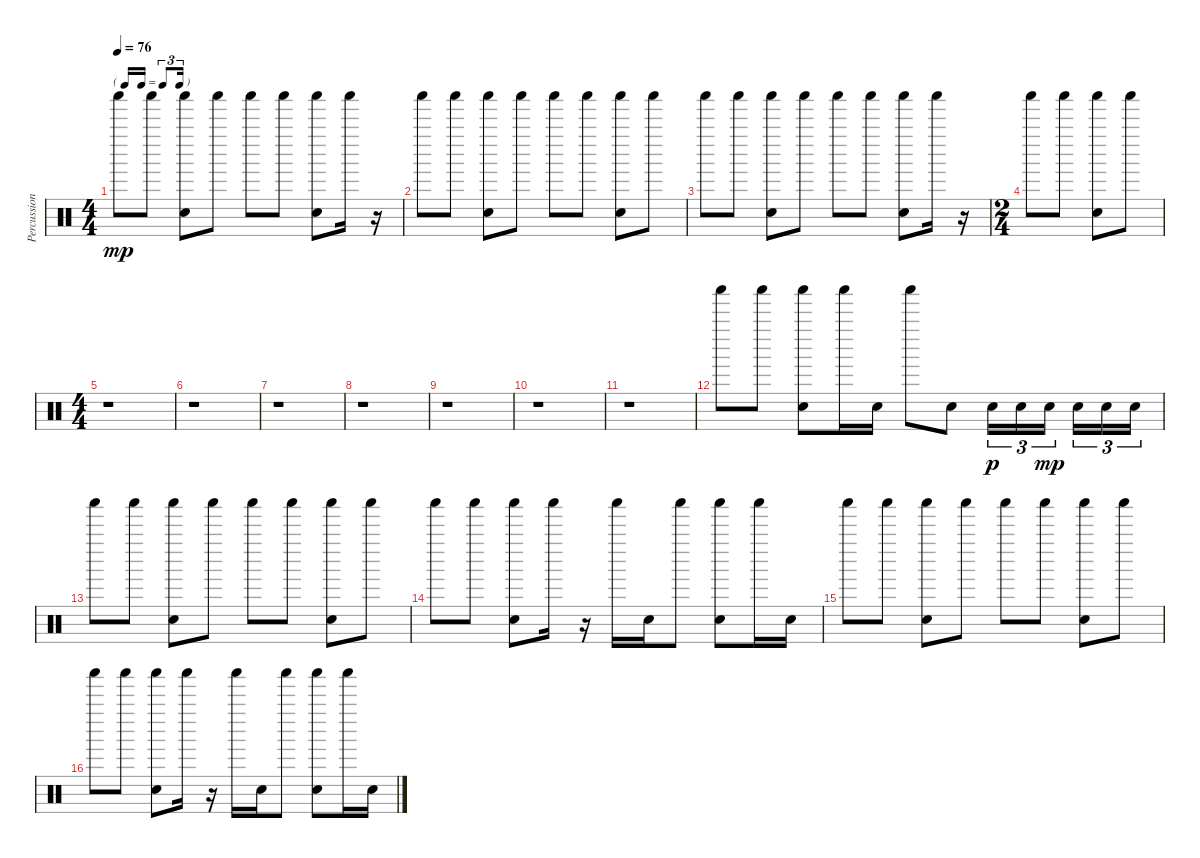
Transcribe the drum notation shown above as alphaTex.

\track ("Percussions" "Percussion") {instrument percussion}
\staff {score}
\articulation defaults
\ts (4 4)
\tf triplet16th
\tempo 76
\clef neutral
\ks c "Shaker (hit)".8{dy mp} "Shaker (hit)".8
("Shaker (hit)" "Snare (hit) 2").8 "Shaker (hit)".8 "Shaker (hit)".8 "Shaker (hit)".8 ("Shaker (hit)" "Snare (hit) 2").8 "Shaker (hit)".16 r.16 |
"Shaker (hit)".8 "Shaker (hit)".8 ("Shaker (hit)" "Snare (hit) 2").8 "Shaker (hit)".8 "Shaker (hit)".8 "Shaker (hit)".8 ("Shaker (hit)" "Snare (hit) 2").8 "Shaker (hit)".8 |
"Shaker (hit)".8 "Shaker (hit)".8 ("Shaker (hit)" "Snare (hit) 2").8 "Shaker (hit)".8 "Shaker (hit)".8 "Shaker (hit)".8 ("Shaker (hit)" "Snare (hit) 2").8 "Shaker (hit)".16 r.16 |
\ts (2 4)
"Shaker (hit)".8 "Shaker (hit)".8 ("Shaker (hit)" "Snare (hit) 2").8 "Shaker (hit)".8 |
\ts (4 4)
r.1 |
r.1 |
r.1 |
r.1 |
r.1 |
r.1 |
r.1 |
"Shaker (hit)".8 "Shaker (hit)".8 ("Shaker (hit)" "Snare (hit) 2").8 "Shaker (hit)".16 "Snare (hit) 2".16 "Shaker (hit)".8 "Snare (hit) 2".8 "Snare (hit) 2".16{tu (3 2) dy p} "Snare (hit) 2".16{tu (3 2)} "Snare (hit) 2".16{tu (3 2) dy mp beam splitsecondary} "Snare (hit) 2".16{tu (3 2)} "Snare (hit) 2".16{tu (3 2)} "Snare (hit) 2".16{tu (3 2)} |
"Shaker (hit)".8 "Shaker (hit)".8 ("Shaker (hit)" "Snare (hit) 2").8 "Shaker (hit)".8 "Shaker (hit)".8 "Shaker (hit)".8 ("Shaker (hit)" "Snare (hit) 2").8 "Shaker (hit)".8 |
"Shaker (hit)".8 "Shaker (hit)".8 ("Shaker (hit)" "Snare (hit) 2").8 "Shaker (hit)".16 r.16 "Shaker (hit)".16 "Snare (hit) 2".16 "Shaker (hit)".8 ("Shaker (hit)" "Snare (hit) 2").8 "Shaker (hit)".16 "Snare (hit) 2".16 |
"Shaker (hit)".8 "Shaker (hit)".8 ("Shaker (hit)" "Snare (hit) 2").8 "Shaker (hit)".8 "Shaker (hit)".8 "Shaker (hit)".8 ("Shaker (hit)" "Snare (hit) 2").8 "Shaker (hit)".8 |
"Shaker (hit)".8 "Shaker (hit)".8 ("Shaker (hit)" "Snare (hit) 2").8 "Shaker (hit)".16 r.16 "Shaker (hit)".16 "Snare (hit) 2".16 "Shaker (hit)".8 ("Shaker (hit)" "Snare (hit) 2").8 "Shaker (hit)".16 "Snare (hit) 2".16
